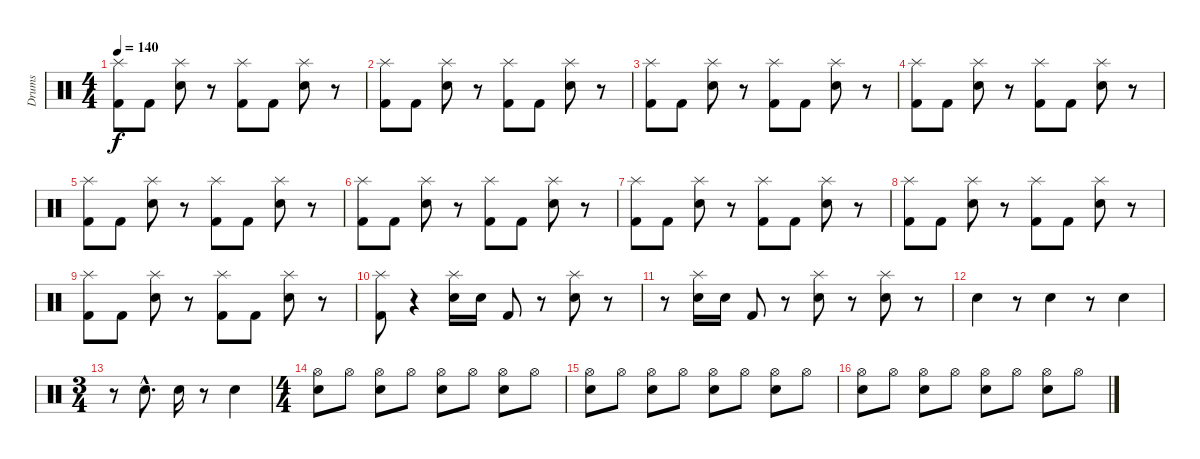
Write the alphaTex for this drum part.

\track ("Drums" "Drums") {instrument percussion}
\staff {score}
\articulation defaults
\ts (4 4)
\tempo 140
\clef neutral
\ks c
("Splash (hit)" "Kick (hit) 2").8{dy f} "Kick (hit) 2".8 ("Splash (hit)" "Snare (hit) 2").8 r.8 ("Splash (hit)" "Kick (hit) 2").8 "Kick (hit) 2".8 ("Splash (hit)" "Snare (hit) 2").8 r.8 |
("Splash (hit)" "Kick (hit) 2").8 "Kick (hit) 2".8 ("Splash (hit)" "Snare (hit) 2").8 r.8 ("Splash (hit)" "Kick (hit) 2").8 "Kick (hit) 2".8 ("Splash (hit)" "Snare (hit) 2").8 r.8 |
("Splash (hit)" "Kick (hit) 2").8 "Kick (hit) 2".8 ("Splash (hit)" "Snare (hit) 2").8 r.8 ("Splash (hit)" "Kick (hit) 2").8 "Kick (hit) 2".8 ("Splash (hit)" "Snare (hit) 2").8 r.8 |
("Splash (hit)" "Kick (hit) 2").8 "Kick (hit) 2".8 ("Splash (hit)" "Snare (hit) 2").8 r.8 ("Splash (hit)" "Kick (hit) 2").8 "Kick (hit) 2".8 ("Splash (hit)" "Snare (hit) 2").8 r.8 |
("Splash (hit)" "Kick (hit) 2").8 "Kick (hit) 2".8 ("Splash (hit)" "Snare (hit) 2").8 r.8 ("Splash (hit)" "Kick (hit) 2").8 "Kick (hit) 2".8 ("Splash (hit)" "Snare (hit) 2").8 r.8 |
("Splash (hit)" "Kick (hit) 2").8 "Kick (hit) 2".8 ("Splash (hit)" "Snare (hit) 2").8 r.8 ("Splash (hit)" "Kick (hit) 2").8 "Kick (hit) 2".8 ("Splash (hit)" "Snare (hit) 2").8 r.8 |
("Splash (hit)" "Kick (hit) 2").8 "Kick (hit) 2".8 ("Splash (hit)" "Snare (hit) 2").8 r.8 ("Splash (hit)" "Kick (hit) 2").8 "Kick (hit) 2".8 ("Splash (hit)" "Snare (hit) 2").8 r.8 |
("Splash (hit)" "Kick (hit) 2").8 "Kick (hit) 2".8 ("Splash (hit)" "Snare (hit) 2").8 r.8 ("Splash (hit)" "Kick (hit) 2").8 "Kick (hit) 2".8 ("Splash (hit)" "Snare (hit) 2").8 r.8 |
("Splash (hit)" "Kick (hit) 2").8 "Kick (hit) 2".8 ("Splash (hit)" "Snare (hit) 2").8 r.8 ("Splash (hit)" "Kick (hit) 2").8 "Kick (hit) 2".8 ("Splash (hit)" "Snare (hit) 2").8 r.8 |
("Splash (hit)" "Kick (hit) 2").8 r.4 ("Splash (hit)" "Snare (hit) 2").16 "Snare (hit) 2".16 "Kick (hit) 2".8 r.8 ("Splash (hit)" "Snare (hit) 2").8 r.8 |
r.8 ("Splash (hit)" "Snare (hit) 2").16 "Snare (hit) 2".16 "Kick (hit) 2".8 r.8 ("Splash (hit)" "Snare (hit) 2").8 r.8 ("Splash (hit)" "Snare (hit) 2").8 r.8 |
"Snare (hit) 2".4 r.8 "Snare (hit) 2".4 r.8 "Snare (hit) 2".4 |
\ts (3 4)
r.8 "Snare (hit) 2"{hac}.8{d} "Snare (hit) 2".16 r.8 "Snare (hit) 2".4 |
\ts (4 4)
("Snare (hit) 2" "Hi-Hat (open)").8 "Hi-Hat (open)".8 ("Snare (hit) 2" "Hi-Hat (open)").8 "Hi-Hat (open)".8 ("Snare (hit) 2" "Hi-Hat (open)").8 "Hi-Hat (open)".8 ("Snare (hit) 2" "Hi-Hat (open)").8 "Hi-Hat (open)".8 |
("Snare (hit) 2" "Hi-Hat (open)").8 "Hi-Hat (open)".8 ("Snare (hit) 2" "Hi-Hat (open)").8 "Hi-Hat (open)".8 ("Snare (hit) 2" "Hi-Hat (open)").8 "Hi-Hat (open)".8 ("Snare (hit) 2" "Hi-Hat (open)").8 "Hi-Hat (open)".8 |
("Snare (hit) 2" "Hi-Hat (open)").8 "Hi-Hat (open)".8 ("Snare (hit) 2" "Hi-Hat (open)").8 "Hi-Hat (open)".8 ("Snare (hit) 2" "Hi-Hat (open)").8 "Hi-Hat (open)".8 ("Snare (hit) 2" "Hi-Hat (open)").8 "Hi-Hat (open)".8
